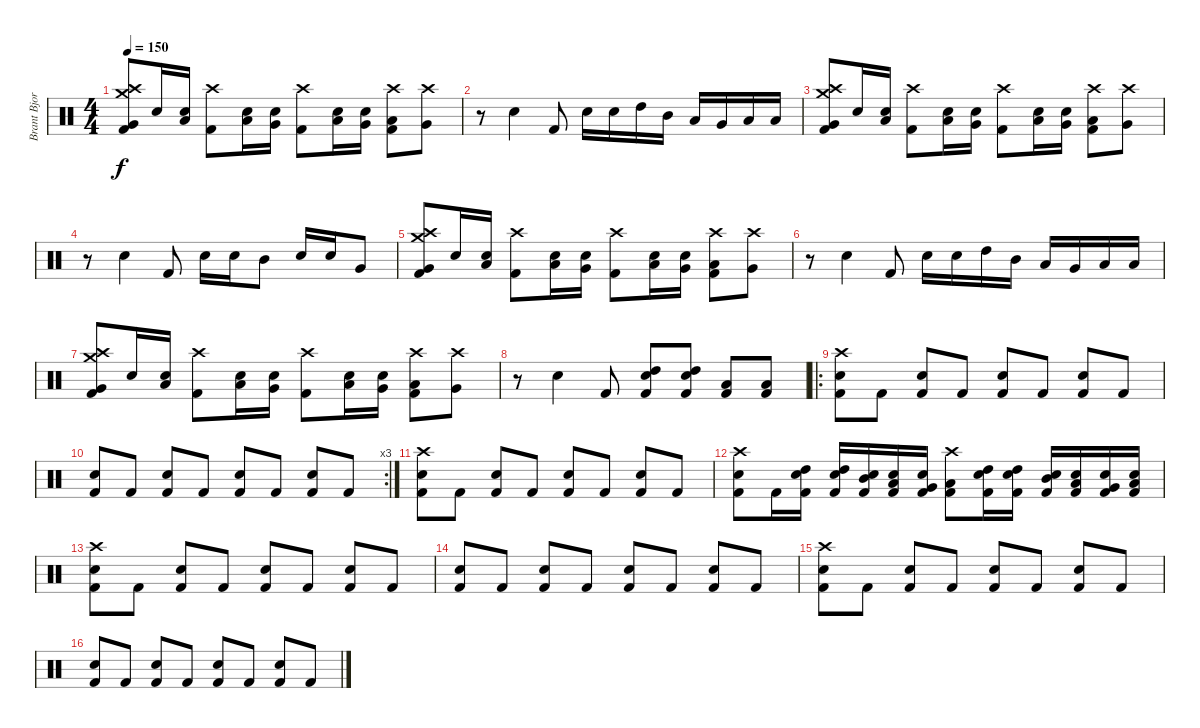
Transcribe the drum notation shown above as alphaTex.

\track ("Brant Bjork" "Brant Bjor") {instrument percussion}
\staff {score}
\articulation defaults
\ts (4 4)
\tempo 150
\clef neutral
\ks c
("Very Low Tom (hit)" "Crash medium (hit)" "Crash high (hit)" "Kick (hit) 2").8{dy f} "Electric Snare (hit)".16 ("Electric Snare (hit)" "Low Tom (hit)").16 ("Crash high (hit)" "Kick (hit) 2").8 ("Electric Snare (hit)" "Low Tom (hit)").16 ("Electric Snare (hit)" "Very Low Tom (hit)").16 ("Crash high (hit)" "Kick (hit) 2").8 ("Electric Snare (hit)" "Low Tom (hit)").16 ("Electric Snare (hit)" "Very Low Tom (hit)").16 ("Crash high (hit)" "Low Tom (hit)" "Kick (hit) 2").8 ("Crash high (hit)" "Very Low Tom (hit)").8 |
r.8 "Electric Snare (hit)".4 "Kick (hit) 2".8 "Electric Snare (hit)".16 "Electric Snare (hit)".16 "High Tom (hit)".16 "Mid Tom (hit)".16 "Low Tom (hit)".16 "Very Low Tom (hit)".16 "Low Floor Tom (hit)".16 "Low Floor Tom (hit)".16 |
("Very Low Tom (hit)" "Crash medium (hit)" "Crash high (hit)" "Kick (hit) 2").8 "Electric Snare (hit)".16 ("Electric Snare (hit)" "Low Tom (hit)").16 ("Crash high (hit)" "Kick (hit) 2").8 ("Electric Snare (hit)" "Low Tom (hit)").16 ("Electric Snare (hit)" "Very Low Tom (hit)").16 ("Crash high (hit)" "Kick (hit) 2").8 ("Electric Snare (hit)" "Low Tom (hit)").16 ("Electric Snare (hit)" "Very Low Tom (hit)").16 ("Crash high (hit)" "Low Tom (hit)" "Kick (hit) 2").8 ("Crash high (hit)" "Very Low Tom (hit)").8 |
r.8 "Electric Snare (hit)".4 "Kick (hit) 2".8 "Electric Snare (hit)".16 "Electric Snare (hit)".16 "Mid Tom (hit)".8 "Electric Snare (hit)".16 "Electric Snare (hit)".16 "Very Low Tom (hit)".8 |
("Very Low Tom (hit)" "Crash medium (hit)" "Crash high (hit)" "Kick (hit) 2").8 "Electric Snare (hit)".16 ("Electric Snare (hit)" "Low Tom (hit)").16 ("Crash high (hit)" "Kick (hit) 2").8 ("Electric Snare (hit)" "Low Tom (hit)").16 ("Electric Snare (hit)" "Very Low Tom (hit)").16 ("Crash high (hit)" "Kick (hit) 2").8 ("Electric Snare (hit)" "Low Tom (hit)").16 ("Electric Snare (hit)" "Very Low Tom (hit)").16 ("Crash high (hit)" "Low Tom (hit)" "Kick (hit) 2").8 ("Crash high (hit)" "Very Low Tom (hit)").8 |
r.8 "Electric Snare (hit)".4 "Kick (hit) 2".8 "Electric Snare (hit)".16 "Electric Snare (hit)".16 "High Tom (hit)".16 "Mid Tom (hit)".16 "Low Tom (hit)".16 "Very Low Tom (hit)".16 "Low Floor Tom (hit)".16 "Low Floor Tom (hit)".16 |
("Very Low Tom (hit)" "Crash medium (hit)" "Crash high (hit)" "Kick (hit) 2").8 "Electric Snare (hit)".16 ("Electric Snare (hit)" "Low Tom (hit)").16 ("Crash high (hit)" "Kick (hit) 2").8 ("Electric Snare (hit)" "Low Tom (hit)").16 ("Electric Snare (hit)" "Very Low Tom (hit)").16 ("Crash high (hit)" "Kick (hit) 2").8 ("Electric Snare (hit)" "Low Tom (hit)").16 ("Electric Snare (hit)" "Very Low Tom (hit)").16 ("Crash high (hit)" "Low Tom (hit)" "Kick (hit) 2").8 ("Crash high (hit)" "Very Low Tom (hit)").8 |
r.8 "Electric Snare (hit)".4 "Kick (hit) 2".8 ("Electric Snare (hit)" "High Tom (hit)" "Kick (hit) 2").8 ("Electric Snare (hit)" "High Tom (hit)" "Kick (hit) 2").8 ("Low Tom (hit)" "Kick (hit) 2").8 ("Low Tom (hit)" "Kick (hit) 2").8 |
\ro
("Crash high (hit)" "Electric Snare (hit)" "Kick (hit) 2").8 "Kick (hit) 2".8 ("Electric Snare (hit)" "Kick (hit) 2").8 "Kick (hit) 2".8 ("Electric Snare (hit)" "Kick (hit) 2").8 "Kick (hit) 2".8 ("Electric Snare (hit)" "Kick (hit) 2").8 "Kick (hit) 2".8 |
\rc 3
("Electric Snare (hit)" "Kick (hit) 2").8 "Kick (hit) 2".8 ("Electric Snare (hit)" "Kick (hit) 2").8 "Kick (hit) 2".8 ("Electric Snare (hit)" "Kick (hit) 2").8 "Kick (hit) 2".8 ("Electric Snare (hit)" "Kick (hit) 2").8 "Kick (hit) 2".8 |
("Crash high (hit)" "Electric Snare (hit)" "Kick (hit) 2").8 "Kick (hit) 2".8 ("Electric Snare (hit)" "Kick (hit) 2").8 "Kick (hit) 2".8 ("Electric Snare (hit)" "Kick (hit) 2").8 "Kick (hit) 2".8 ("Electric Snare (hit)" "Kick (hit) 2").8 "Kick (hit) 2".8 |
("Crash high (hit)" "Electric Snare (hit)" "Kick (hit) 2").8 "Kick (hit) 2".16 ("Electric Snare (hit)" "High Tom (hit)" "Kick (hit) 2").16 ("Electric Snare (hit)" "High Tom (hit)" "Kick (hit) 2").16 ("Electric Snare (hit)" "Mid Tom (hit)" "Kick (hit) 2").16 ("Electric Snare (hit)" "Low Tom (hit)" "Kick (hit) 2").16 ("Electric Snare (hit)" "Very Low Tom (hit)" "Kick (hit) 2").16 ("Crash high (hit)" "Low Floor Tom (hit)" "Kick (hit) 2").8 ("Electric Snare (hit)" "High Tom (hit)" "Kick (hit) 2").16 ("Electric Snare (hit)" "High Tom (hit)" "Kick (hit) 2").16 ("Electric Snare (hit)" "Mid Tom (hit)" "Kick (hit) 2").16 ("Electric Snare (hit)" "Low Tom (hit)" "Kick (hit) 2").16 ("Electric Snare (hit)" "Very Low Tom (hit)" "Kick (hit) 2").16 ("Electric Snare (hit)" "Low Floor Tom (hit)" "Kick (hit) 2").16 |
("Crash high (hit)" "Electric Snare (hit)" "Kick (hit) 2").8 "Kick (hit) 2".8 ("Electric Snare (hit)" "Kick (hit) 2").8 "Kick (hit) 2".8 ("Electric Snare (hit)" "Kick (hit) 2").8 "Kick (hit) 2".8 ("Electric Snare (hit)" "Kick (hit) 2").8 "Kick (hit) 2".8 |
("Electric Snare (hit)" "Kick (hit) 2").8 "Kick (hit) 2".8 ("Electric Snare (hit)" "Kick (hit) 2").8 "Kick (hit) 2".8 ("Electric Snare (hit)" "Kick (hit) 2").8 "Kick (hit) 2".8 ("Electric Snare (hit)" "Kick (hit) 2").8 "Kick (hit) 2".8 |
("Crash high (hit)" "Electric Snare (hit)" "Kick (hit) 2").8 "Kick (hit) 2".8 ("Electric Snare (hit)" "Kick (hit) 2").8 "Kick (hit) 2".8 ("Electric Snare (hit)" "Kick (hit) 2").8 "Kick (hit) 2".8 ("Electric Snare (hit)" "Kick (hit) 2").8 "Kick (hit) 2".8 |
("Electric Snare (hit)" "Kick (hit) 2").8 "Kick (hit) 2".8 ("Electric Snare (hit)" "Kick (hit) 2").8 "Kick (hit) 2".8 ("Electric Snare (hit)" "Kick (hit) 2").8 "Kick (hit) 2".8 ("Electric Snare (hit)" "Kick (hit) 2").8 "Kick (hit) 2".8
